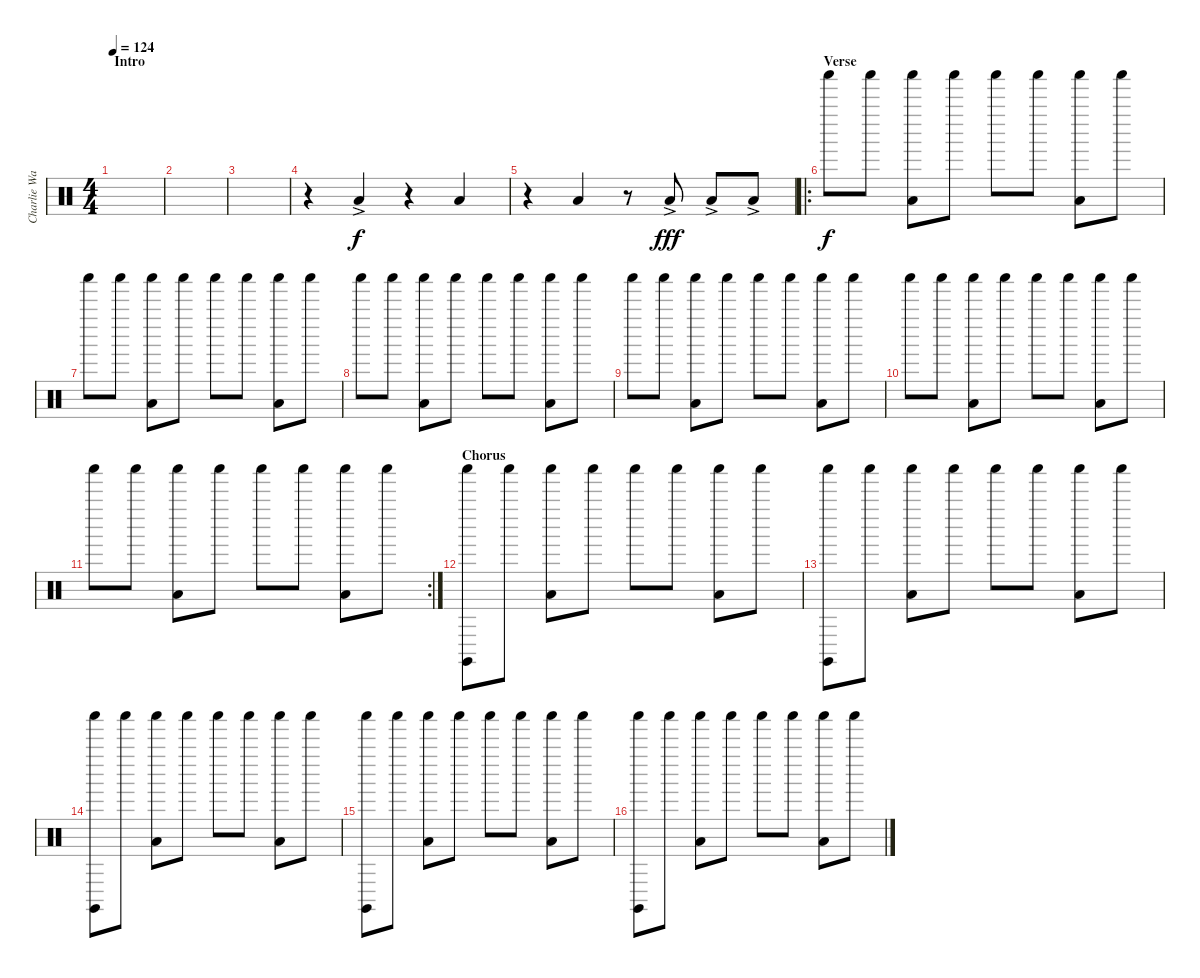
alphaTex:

\track ("Charlie Watts" "Charlie Wa") {instrument percussion}
\staff {score}
\articulation defaults
\ts (4 4)
\section ("" "Intro")
\tempo 124
\clef neutral
\ks c
|
|
|
r.4 "Low Tom (hit)"{ac}.4 r.4 "Low Tom (hit)".4{dy f} |
r.4 "Low Tom (hit)".4 r.8 "Low Tom (hit)"{ac}.8{dy fff} "Low Tom (hit)"{ac}.8 "Low Tom (hit)"{ac}.8 |
\ro
\section ("" "Verse")
"Shaker (hit)".8{dy f} "Shaker (hit)".8 ("Low Tom (hit)" "Shaker (hit)").8 "Shaker (hit)".8 "Shaker (hit)".8 "Shaker (hit)".8 ("Low Tom (hit)" "Shaker (hit)").8 "Shaker (hit)".8 |
"Shaker (hit)".8 "Shaker (hit)".8 ("Low Tom (hit)" "Shaker (hit)").8 "Shaker (hit)".8 "Shaker (hit)".8 "Shaker (hit)".8 ("Low Tom (hit)" "Shaker (hit)").8 "Shaker (hit)".8 |
"Shaker (hit)".8 "Shaker (hit)".8 ("Low Tom (hit)" "Shaker (hit)").8 "Shaker (hit)".8 "Shaker (hit)".8 "Shaker (hit)".8 ("Low Tom (hit)" "Shaker (hit)").8 "Shaker (hit)".8 |
"Shaker (hit)".8 "Shaker (hit)".8 ("Low Tom (hit)" "Shaker (hit)").8 "Shaker (hit)".8 "Shaker (hit)".8 "Shaker (hit)".8 ("Low Tom (hit)" "Shaker (hit)").8 "Shaker (hit)".8 |
"Shaker (hit)".8 "Shaker (hit)".8 ("Low Tom (hit)" "Shaker (hit)").8 "Shaker (hit)".8 "Shaker (hit)".8 "Shaker (hit)".8 ("Low Tom (hit)" "Shaker (hit)").8 "Shaker (hit)".8 |
\rc 2 "Shaker (hit)".8 "Shaker (hit)".8
("Low Tom (hit)" "Shaker (hit)").8 "Shaker (hit)".8 "Shaker (hit)".8 "Shaker (hit)".8 ("Low Tom (hit)" "Shaker (hit)").8 "Shaker (hit)".8 |
\section ("" "Chorus")
("Claves (hit)" "Shaker (hit)").8 "Shaker (hit)".8 ("Low Tom (hit)" "Shaker (hit)").8 "Shaker (hit)".8 "Shaker (hit)".8 "Shaker (hit)".8 ("Low Tom (hit)" "Shaker (hit)").8 "Shaker (hit)".8 |
("Claves (hit)" "Shaker (hit)").8 "Shaker (hit)".8 ("Low Tom (hit)" "Shaker (hit)").8 "Shaker (hit)".8 "Shaker (hit)".8 "Shaker (hit)".8 ("Low Tom (hit)" "Shaker (hit)").8 "Shaker (hit)".8 |
("Claves (hit)" "Shaker (hit)").8 "Shaker (hit)".8 ("Low Tom (hit)" "Shaker (hit)").8 "Shaker (hit)".8 "Shaker (hit)".8 "Shaker (hit)".8 ("Low Tom (hit)" "Shaker (hit)").8 "Shaker (hit)".8 |
("Claves (hit)" "Shaker (hit)").8 "Shaker (hit)".8 ("Low Tom (hit)" "Shaker (hit)").8 "Shaker (hit)".8 "Shaker (hit)".8 "Shaker (hit)".8 ("Low Tom (hit)" "Shaker (hit)").8 "Shaker (hit)".8 |
("Claves (hit)" "Shaker (hit)").8 "Shaker (hit)".8 ("Low Tom (hit)" "Shaker (hit)").8 "Shaker (hit)".8 "Shaker (hit)".8 "Shaker (hit)".8 ("Low Tom (hit)" "Shaker (hit)").8 "Shaker (hit)".8
